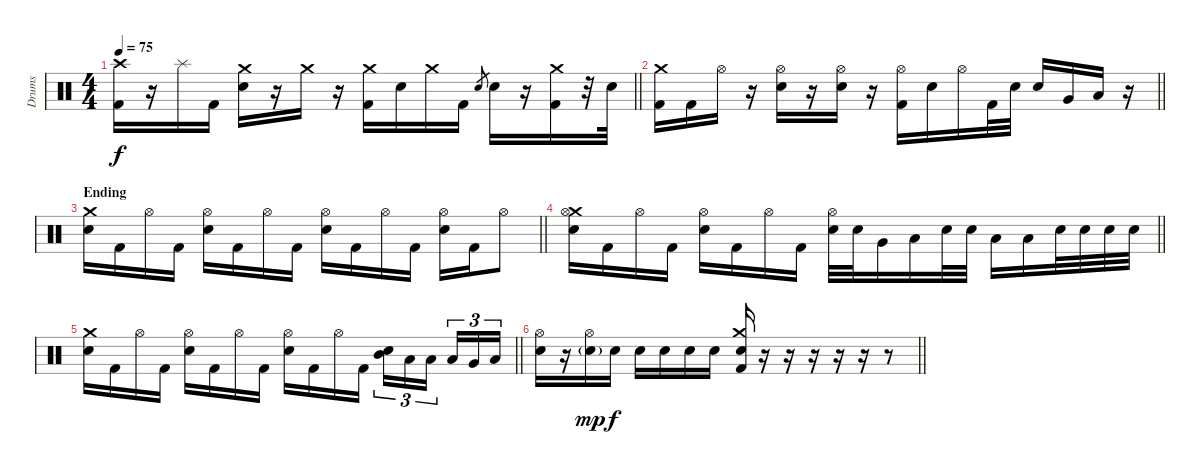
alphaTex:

\track ("Drums" "Drums") {instrument percussion}
\staff {score}
\articulation defaults
\ts (4 4)
\tempo 75
\clef neutral
\barLineRight lightlight
\ks c
("Crash high (hit)" "Kick (hit) 2").16{dy f} r.16 "Splash (hit)".16 "Kick (hit) 2".16 ("Crash medium (hit)" "Snare (hit) 2").16 r.16 "Crash medium (hit)".16 r.16 ("Crash medium (hit)" "Kick (hit) 2").16 "Snare (hit) 2".16 "Crash medium (hit)".16 "Kick (hit) 2".16 "Snare (hit) 2".8{gr} "Snare (hit) 2".16 r.16 ("Crash medium (hit)" "Kick (hit) 2").16 r.32 "Snare (hit) 2".32 |
\barLineRight lightlight
("Crash medium (hit)" "Kick (hit) 2").16 "Kick (hit) 2".16 "Hi-Hat (open)".16 r.16 ("Hi-Hat (open)" "Snare (hit) 2").16 r.16 ("Hi-Hat (open)" "Snare (hit) 2").16 r.16 ("Hi-Hat (open)" "Kick (hit) 2").16 "Snare (hit) 2".16 "Hi-Hat (open)".16 "Kick (hit) 2".32 "Snare (hit) 2".32 "Snare (hit) 2".16 "Very Low Tom (hit)".16 "Low Floor Tom (hit)".16 r.16 |
\section ("" "Ending")
\barLineRight lightlight
("Crash medium (hit)" "Snare (hit) 2").16 "Kick (hit) 2".16 "Hi-Hat (open)".16 "Kick (hit) 2".16 ("Hi-Hat (open)" "Snare (hit) 2").16 "Kick (hit) 2".16 "Hi-Hat (open)".16 "Kick (hit) 2".16 ("Hi-Hat (open)" "Snare (hit) 2").16 "Kick (hit) 2".16 "Hi-Hat (open)".16 "Kick (hit) 2".16 ("Hi-Hat (open)" "Snare (hit) 2").16 "Kick (hit) 2".16 "Hi-Hat (open)".8 |
\barLineRight lightlight
("Crash medium (hit)" "Hi-Hat (open)" "Snare (hit) 2").16 "Kick (hit) 2".16 "Hi-Hat (open)".16 "Kick (hit) 2".16 ("Hi-Hat (open)" "Snare (hit) 2").16 "Kick (hit) 2".16 "Hi-Hat (open)".16 "Kick (hit) 2".16 ("Hi-Hat (open)" "Snare (hit) 2").32 "Snare (hit) 2".32 "Very Low Tom (hit)".16 "Low Floor Tom (hit)".16 "Snare (hit) 2".32 "Snare (hit) 2".32 "Low Floor Tom (hit)".16 "Low Floor Tom (hit)".16 "Snare (hit) 2".32 "Snare (hit) 2".32 "Snare (hit) 2".32 "Snare (hit) 2".32 |
\barLineRight lightlight
("Crash medium (hit)" "Snare (hit) 2").16 "Kick (hit) 2".16 "Hi-Hat (open)".16 "Kick (hit) 2".16 ("Hi-Hat (open)" "Snare (hit) 2").16 "Kick (hit) 2".16 "Hi-Hat (open)".16 "Kick (hit) 2".16 ("Hi-Hat (open)" "Snare (hit) 2").16 "Kick (hit) 2".16 "Hi-Hat (open)".16 "Kick (hit) 2".16 ("Mid Tom (hit)" "Snare (hit) 2").16{tu (3 2)} "Low Tom (hit)".16{tu (3 2)} "Low Tom (hit)".16{tu (3 2)} "Low Tom (hit)".16{tu (3 2)} "Very Low Tom (hit)".16{tu (3 2)} "Low Floor Tom (hit)".16{tu (3 2)} |
\barLineRight lightlight
("Hi-Hat (open)" "Snare (hit) 2").16 r.16 ("Hi-Hat (open)" "Snare (hit) 2"{g}).16{dy mp} "Snare (hit) 2".16{dy f} "Snare (hit) 2".16 "Snare (hit) 2".16 "Snare (hit) 2".16 "Snare (hit) 2".16 ("Crash medium (hit)" "Snare (hit) 2" "Kick (hit) 2").16 r.16 r.16 r.16 r.16 r.16 r.8
